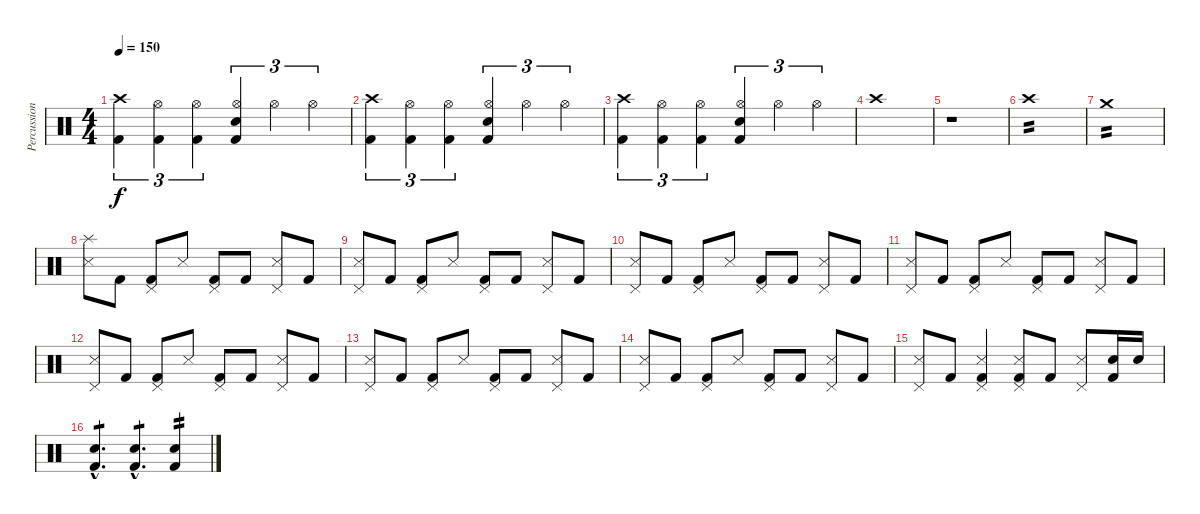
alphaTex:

\track ("Percussion" "Percussion") {instrument percussion}
\staff {score}
\articulation defaults
\ts (4 4)
\tempo 150
\clef neutral
\ks c
("Crash high (hit)" "Kick (hit) 2").4{tu (3 2) dy f} ("Hi-Hat (open)" "Kick (hit) 2").4{tu (3 2)} ("Hi-Hat (open)" "Kick (hit) 2").4{tu (3 2)} ("Hi-Hat (open)" "Snare (hit) 2" "Kick (hit) 2").4{tu (3 2)} "Hi-Hat (open)".4{tu (3 2)} "Hi-Hat (open)".4{tu (3 2)} |
("Crash high (hit)" "Kick (hit) 2").4{tu (3 2)} ("Hi-Hat (open)" "Kick (hit) 2").4{tu (3 2)} ("Hi-Hat (open)" "Kick (hit) 2").4{tu (3 2)} ("Hi-Hat (open)" "Snare (hit) 2" "Kick (hit) 2").4{tu (3 2)} "Hi-Hat (open)".4{tu (3 2)} "Hi-Hat (open)".4{tu (3 2)} |
("Crash high (hit)" "Kick (hit) 2").4{tu (3 2)} ("Hi-Hat (open)" "Kick (hit) 2").4{tu (3 2)} ("Hi-Hat (open)" "Kick (hit) 2").4{tu (3 2)} ("Hi-Hat (open)" "Snare (hit) 2" "Kick (hit) 2").4{tu (3 2)} "Hi-Hat (open)".4{tu (3 2)} "Hi-Hat (open)".4{tu (3 2)} |
"Crash high (hit)".1{volume 0} |
r.1 |
"Crash high (hit)".1{tp 2 volume 12} |
"Crash medium (hit)".1{tp 2} |
("Splash (hit)" "Snare (side stick) 3").8 "Kick (hit) 2".8 ("Pedal Hi-Hat (hit)" "Kick (hit) 2").8 "Snare (side stick) 3".8 ("Pedal Hi-Hat (hit)" "Kick (hit) 2").8 "Kick (hit) 2".8 ("Pedal Hi-Hat (hit)" "Snare (side stick) 3").8 "Kick (hit) 2".8 |
("Pedal Hi-Hat (hit)" "Snare (side stick) 3").8 "Kick (hit) 2".8 ("Pedal Hi-Hat (hit)" "Kick (hit) 2").8 "Snare (side stick) 3".8 ("Pedal Hi-Hat (hit)" "Kick (hit) 2").8 "Kick (hit) 2".8 ("Pedal Hi-Hat (hit)" "Snare (side stick) 3").8 "Kick (hit) 2".8 |
("Pedal Hi-Hat (hit)" "Snare (side stick) 3").8 "Kick (hit) 2".8 ("Pedal Hi-Hat (hit)" "Kick (hit) 2").8 "Snare (side stick) 3".8 ("Pedal Hi-Hat (hit)" "Kick (hit) 2").8 "Kick (hit) 2".8 ("Pedal Hi-Hat (hit)" "Snare (side stick) 3").8 "Kick (hit) 2".8 |
("Pedal Hi-Hat (hit)" "Snare (side stick) 3").8 "Kick (hit) 2".8 ("Pedal Hi-Hat (hit)" "Kick (hit) 2").8 "Snare (side stick) 3".8 ("Pedal Hi-Hat (hit)" "Kick (hit) 2").8 "Kick (hit) 2".8 ("Pedal Hi-Hat (hit)" "Snare (side stick) 3").8 "Kick (hit) 2".8 |
("Pedal Hi-Hat (hit)" "Snare (side stick) 3").8 "Kick (hit) 2".8 ("Pedal Hi-Hat (hit)" "Kick (hit) 2").8 "Snare (side stick) 3".8 ("Pedal Hi-Hat (hit)" "Kick (hit) 2").8 "Kick (hit) 2".8 ("Pedal Hi-Hat (hit)" "Snare (side stick) 3").8 "Kick (hit) 2".8 |
("Pedal Hi-Hat (hit)" "Snare (side stick) 3").8 "Kick (hit) 2".8 ("Pedal Hi-Hat (hit)" "Kick (hit) 2").8 "Snare (side stick) 3".8 ("Pedal Hi-Hat (hit)" "Kick (hit) 2").8 "Kick (hit) 2".8 ("Pedal Hi-Hat (hit)" "Snare (side stick) 3").8 "Kick (hit) 2".8 |
("Pedal Hi-Hat (hit)" "Snare (side stick) 3").8 "Kick (hit) 2".8 ("Pedal Hi-Hat (hit)" "Kick (hit) 2").8 "Snare (side stick) 3".8 ("Pedal Hi-Hat (hit)" "Kick (hit) 2").8 "Kick (hit) 2".8 ("Pedal Hi-Hat (hit)" "Snare (side stick) 3").8 "Kick (hit) 2".8 |
("Pedal Hi-Hat (hit)" "Snare (side stick) 3").8 "Kick (hit) 2".8 ("Pedal Hi-Hat (hit)" "Snare (side stick) 3" "Kick (hit) 2").4 ("Pedal Hi-Hat (hit)" "Snare (side stick) 3" "Kick (hit) 2").8 "Kick (hit) 2".8 ("Pedal Hi-Hat (hit)" "Snare (side stick) 3").8 ("Snare (hit) 2" "Kick (hit) 2").16 "Snare (hit) 2".16 |
("Snare (hit) 2"{hac} "Kick (hit) 2"{hac}).4{d tp 1} ("Snare (hit) 2"{hac} "Kick (hit) 2"{hac}).4{d tp 1} ("Snare (hit) 2" "Kick (hit) 2").4{tp 2}
